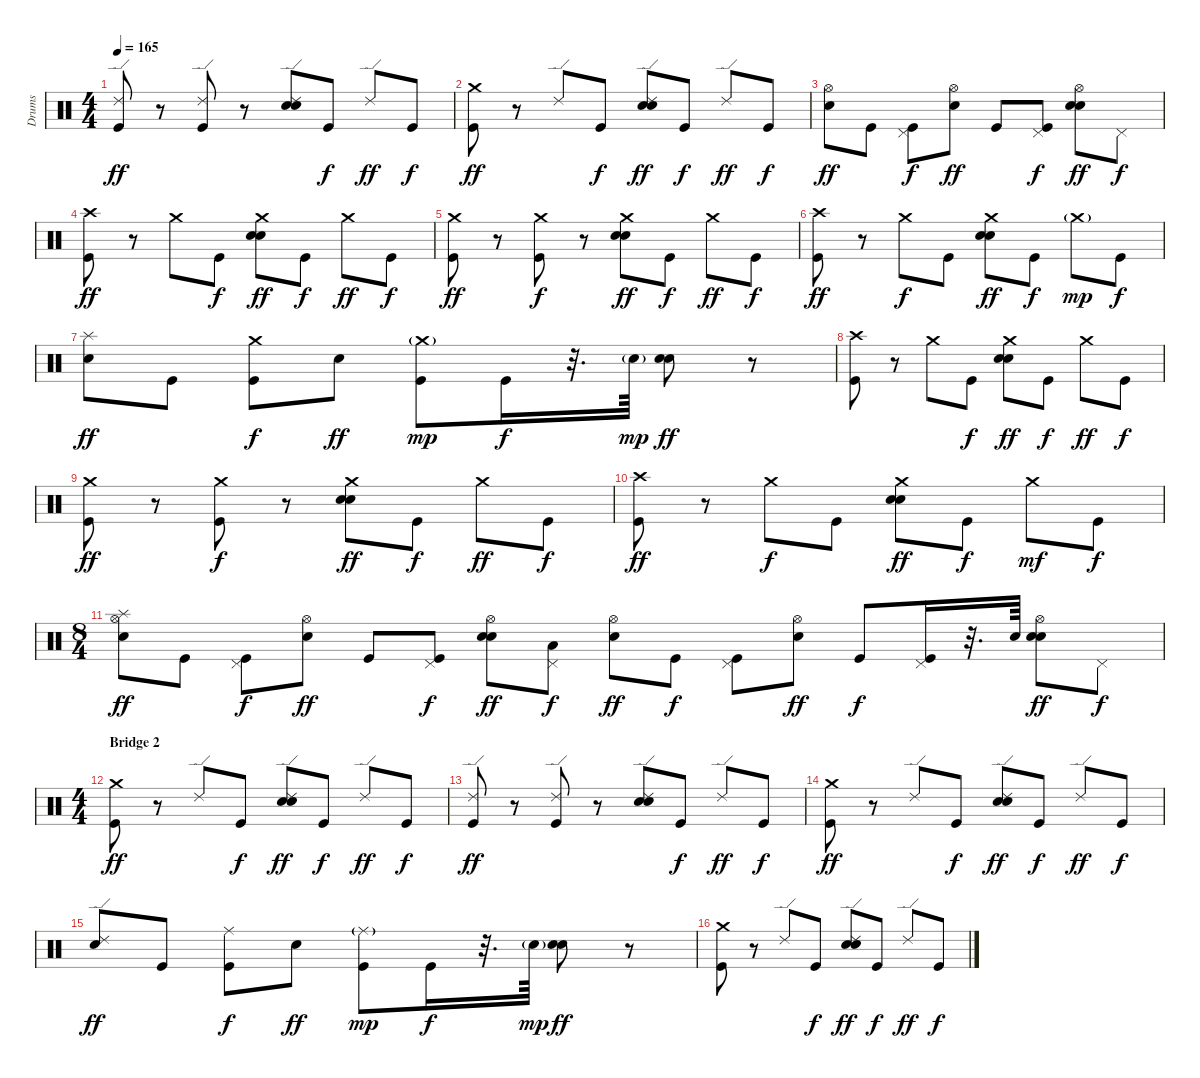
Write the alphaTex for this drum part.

\track ("Drums" "Drums") {instrument percussion}
\staff {score}
\articulation defaults
\ts (4 4)
\tempo 165
\clef neutral
\ks c
("Kick (hit)" "Ride (edge) 2").8{dy ff} r.8 ("Kick (hit)" "Ride (edge) 2").8 r.8 ("Electric Snare (hit)" "Electric Snare (hit)" "Ride (edge) 2").8 "Kick (hit)".8{dy f} "Ride (edge) 2".8{dy ff} "Kick (hit)".8{dy f} |
("Kick (hit)" "Crash medium (hit)").8{dy ff} r.8 "Ride (edge) 2".8 "Kick (hit)".8{dy f} ("Electric Snare (hit)" "Electric Snare (hit)" "Ride (edge) 2").8{dy ff} "Kick (hit)".8{dy f} "Ride (edge) 2".8{dy ff} "Kick (hit)".8{dy f} |
("Electric Snare (hit)" "Hi-Hat (open)").8{dy ff} "Kick (hit)".8 ("Kick (hit)" "Pedal Hi-Hat (hit)").8{dy f} ("Electric Snare (hit)" "Hi-Hat (open)").8{dy ff} "Kick (hit)".8 ("Kick (hit)" "Pedal Hi-Hat (hit)").8{dy f} ("Electric Snare (hit)" "Electric Snare (hit)" "Hi-Hat (open)").8{dy ff} "Pedal Hi-Hat (hit)".8{dy f} |
("Kick (hit)" "Crash high (hit)").8{dy ff} r.8 "Crash medium (hit)".8 "Kick (hit)".8{dy f} ("Electric Snare (hit)" "Electric Snare (hit)" "Crash medium (hit)").8{dy ff} "Kick (hit)".8{dy f} "Crash medium (hit)".8{dy ff} "Kick (hit)".8{dy f} |
("Kick (hit)" "Crash medium (hit)").8{dy ff} r.8 ("Kick (hit)" "Crash medium (hit)").8{dy f} r.8 ("Electric Snare (hit)" "Electric Snare (hit)" "Crash medium (hit)").8{dy ff} "Kick (hit)".8{dy f} "Crash medium (hit)".8{dy ff} "Kick (hit)".8{dy f} |
("Kick (hit)" "Crash high (hit)").8{dy ff} r.8 "Crash medium (hit)".8{dy f} "Kick (hit)".8 ("Electric Snare (hit)" "Electric Snare (hit)" "Crash medium (hit)").8{dy ff} "Kick (hit)".8{dy f} "Crash medium (hit)"{g}.8{dy mp} "Kick (hit)".8{dy f} |
("Electric Snare (hit)" "Splash (hit)").8{dy ff} "Kick (hit)".8 ("Kick (hit)" "Crash medium (hit)").8{dy f} "Electric Snare (hit)".8{dy ff} ("Kick (hit)" "Crash medium (hit)"{g}).8{dy mp} "Kick (hit)".16{dy f} r.32{d} "Electric Snare (hit)"{g}.64{dy mp} ("Electric Snare (hit)" "Electric Snare (hit)").8{dy ff} r.8 |
("Kick (hit)" "Crash high (hit)").8 r.8 "Crash medium (hit)".8 "Kick (hit)".8{dy f} ("Electric Snare (hit)" "Electric Snare (hit)" "Crash medium (hit)").8{dy ff} "Kick (hit)".8{dy f} "Crash medium (hit)".8{dy ff} "Kick (hit)".8{dy f} |
("Kick (hit)" "Crash medium (hit)").8{dy ff} r.8 ("Kick (hit)" "Crash medium (hit)").8{dy f} r.8 ("Electric Snare (hit)" "Electric Snare (hit)" "Crash medium (hit)").8{dy ff} "Kick (hit)".8{dy f} "Crash medium (hit)".8{dy ff} "Kick (hit)".8{dy f} |
("Kick (hit)" "Crash high (hit)").8{dy ff} r.8 "Crash medium (hit)".8{dy f} "Kick (hit)".8 ("Electric Snare (hit)" "Electric Snare (hit)" "Crash medium (hit)").8{dy ff} "Kick (hit)".8{dy f} "Crash medium (hit)".8{dy mf} "Kick (hit)".8{dy f} |
\ts (8 4)
("Electric Snare (hit)" "Hi-Hat (open)" "Splash (hit)").8{dy ff} "Kick (hit)".8 ("Kick (hit)" "Pedal Hi-Hat (hit)").8{dy f} ("Electric Snare (hit)" "Hi-Hat (open)").8{dy ff} "Kick (hit)".8 ("Kick (hit)" "Pedal Hi-Hat (hit)").8{dy f} ("Electric Snare (hit)" "Electric Snare (hit)" "Hi-Hat (open)").8{dy ff} ("Low Floor Tom (hit)" "Pedal Hi-Hat (hit)").8{dy f} ("Electric Snare (hit)" "Hi-Hat (open)").8{dy ff} "Kick (hit)".8{dy f} ("Kick (hit)" "Pedal Hi-Hat (hit)").8 ("Electric Snare (hit)" "Hi-Hat (open)").8{dy ff} "Kick (hit)".8{dy f} ("Kick (hit)" "Pedal Hi-Hat (hit)").16 r.32{d} "Electric Snare (hit)".64 ("Electric Snare (hit)" "Electric Snare (hit)" "Hi-Hat (open)").8{dy ff} "Pedal Hi-Hat (hit)".8{dy f} |
\ts (4 4)
\section ("" "Bridge 2")
("Kick (hit)" "Crash medium (hit)").8{dy ff} r.8 "Ride (edge) 2".8 "Kick (hit)".8{dy f} ("Electric Snare (hit)" "Electric Snare (hit)" "Ride (edge) 2").8{dy ff} "Kick (hit)".8{dy f} "Ride (edge) 2".8{dy ff} "Kick (hit)".8{dy f} |
("Kick (hit)" "Ride (edge) 2").8{dy ff} r.8 ("Kick (hit)" "Ride (edge) 2").8 r.8 ("Electric Snare (hit)" "Electric Snare (hit)" "Ride (edge) 2").8 "Kick (hit)".8{dy f} "Ride (edge) 2".8{dy ff} "Kick (hit)".8{dy f} |
("Kick (hit)" "Crash medium (hit)").8{dy ff} r.8 "Ride (edge) 2".8 "Kick (hit)".8{dy f} ("Electric Snare (hit)" "Electric Snare (hit)" "Ride (edge) 2").8{dy ff} "Kick (hit)".8{dy f} "Ride (edge) 2".8{dy ff} "Kick (hit)".8{dy f} |
("Electric Snare (hit)" "Ride (edge) 2").8{dy ff} "Kick (hit)".8 ("Kick (hit)" "Ride (middle)").8{dy f} "Electric Snare (hit)".8{dy ff} ("Kick (hit)" "Ride (middle)"{g}).8{dy mp} "Kick (hit)".16{dy f} r.32{d} "Electric Snare (hit)"{g}.64{dy mp} ("Electric Snare (hit)" "Electric Snare (hit)").8{dy ff} r.8 |
("Kick (hit)" "Crash medium (hit)").8 r.8 "Ride (edge) 2".8 "Kick (hit)".8{dy f} ("Electric Snare (hit)" "Electric Snare (hit)" "Ride (edge) 2").8{dy ff} "Kick (hit)".8{dy f} "Ride (edge) 2".8{dy ff} "Kick (hit)".8{dy f}
